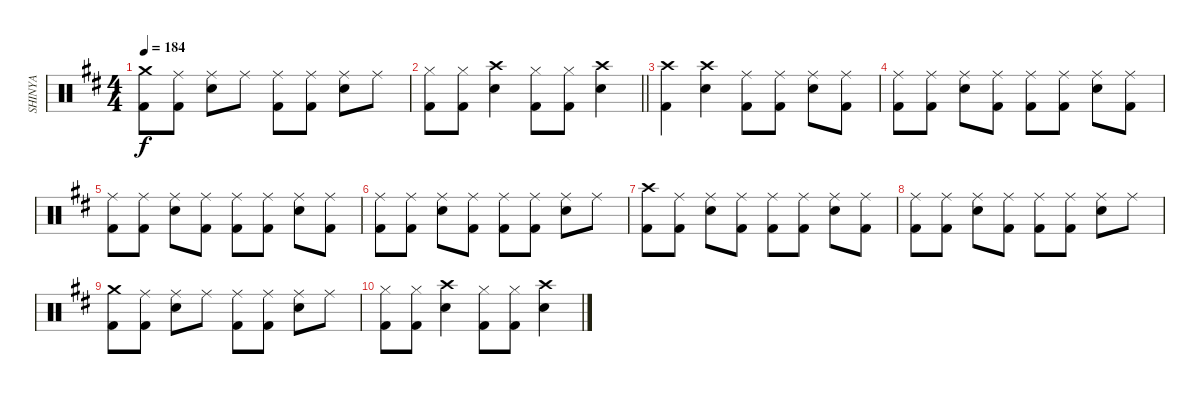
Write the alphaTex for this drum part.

\track ("SHINYA" "SHINYA") {instrument percussion}
\staff {score}
\articulation defaults
\ts (4 4)
\tempo 184
\clef neutral
\ks bminor
("Crash medium (hit)" "Kick (hit) 2").8{dy f} ("Ride (middle)" "Kick (hit) 2").8 ("Ride (middle)" "Snare (hit) 2").8 "Ride (middle)".8 ("Ride (middle)" "Kick (hit) 2").8 ("Ride (middle)" "Kick (hit) 2").8 ("Ride (middle)" "Snare (hit) 2").8 "Ride (middle)".8 |
\barLineRight lightlight
("Hi-Hat (closed)" "Kick (hit) 2").8 ("Hi-Hat (closed)" "Kick (hit) 2").8 ("Crash high (hit)" "Snare (hit) 2").4 ("Hi-Hat (closed)" "Kick (hit) 2").8 ("Hi-Hat (closed)" "Kick (hit) 2").8 ("Crash high (hit)" "Snare (hit) 2").4 |
("Crash high (hit)" "Kick (hit) 2").4 ("Crash high (hit)" "Snare (hit) 2").4 ("Ride (middle)" "Kick (hit) 2").8 ("Ride (middle)" "Kick (hit) 2").8 ("Ride (middle)" "Snare (hit) 2").8 ("Ride (middle)" "Kick (hit) 2").8 |
("Ride (middle)" "Kick (hit) 2").8 ("Ride (middle)" "Kick (hit) 2").8 ("Ride (middle)" "Snare (hit) 2").8 ("Ride (middle)" "Kick (hit) 2").8 ("Ride (middle)" "Kick (hit) 2").8 ("Ride (middle)" "Kick (hit) 2").8 ("Ride (middle)" "Snare (hit) 2").8 ("Ride (middle)" "Kick (hit) 2").8 |
("Ride (middle)" "Kick (hit) 2").8 ("Ride (middle)" "Kick (hit) 2").8 ("Ride (middle)" "Snare (hit) 2").8 ("Ride (middle)" "Kick (hit) 2").8 ("Ride (middle)" "Kick (hit) 2").8 ("Ride (middle)" "Kick (hit) 2").8 ("Ride (middle)" "Snare (hit) 2").8 ("Ride (middle)" "Kick (hit) 2").8 |
("Ride (middle)" "Kick (hit) 2").8 ("Ride (middle)" "Kick (hit) 2").8 ("Ride (middle)" "Snare (hit) 2").8 ("Ride (middle)" "Kick (hit) 2").8 ("Ride (middle)" "Kick (hit) 2").8 ("Ride (middle)" "Kick (hit) 2").8 ("Ride (middle)" "Snare (hit) 2").8 "Ride (middle)".8 |
("Crash high (hit)" "Kick (hit) 2").8 ("Ride (middle)" "Kick (hit) 2").8 ("Ride (middle)" "Snare (hit) 2").8 ("Ride (middle)" "Kick (hit) 2").8 ("Ride (middle)" "Kick (hit) 2").8 ("Ride (middle)" "Kick (hit) 2").8 ("Ride (middle)" "Snare (hit) 2").8 ("Ride (middle)" "Kick (hit) 2").8 |
("Ride (middle)" "Kick (hit) 2").8 ("Ride (middle)" "Kick (hit) 2").8 ("Ride (middle)" "Snare (hit) 2").8 ("Ride (middle)" "Kick (hit) 2").8 ("Ride (middle)" "Kick (hit) 2").8 ("Ride (middle)" "Kick (hit) 2").8 ("Ride (middle)" "Snare (hit) 2").8 "Ride (middle)".8 |
("Crash medium (hit)" "Kick (hit) 2").8 ("Ride (middle)" "Kick (hit) 2").8 ("Ride (middle)" "Snare (hit) 2").8 "Ride (middle)".8 ("Ride (middle)" "Kick (hit) 2").8 ("Ride (middle)" "Kick (hit) 2").8 ("Ride (middle)" "Snare (hit) 2").8 "Ride (middle)".8 |
("Hi-Hat (closed)" "Kick (hit) 2").8 ("Hi-Hat (closed)" "Kick (hit) 2").8 ("Crash high (hit)" "Snare (hit) 2").4 ("Hi-Hat (closed)" "Kick (hit) 2").8 ("Hi-Hat (closed)" "Kick (hit) 2").8 ("Crash high (hit)" "Snare (hit) 2").4
